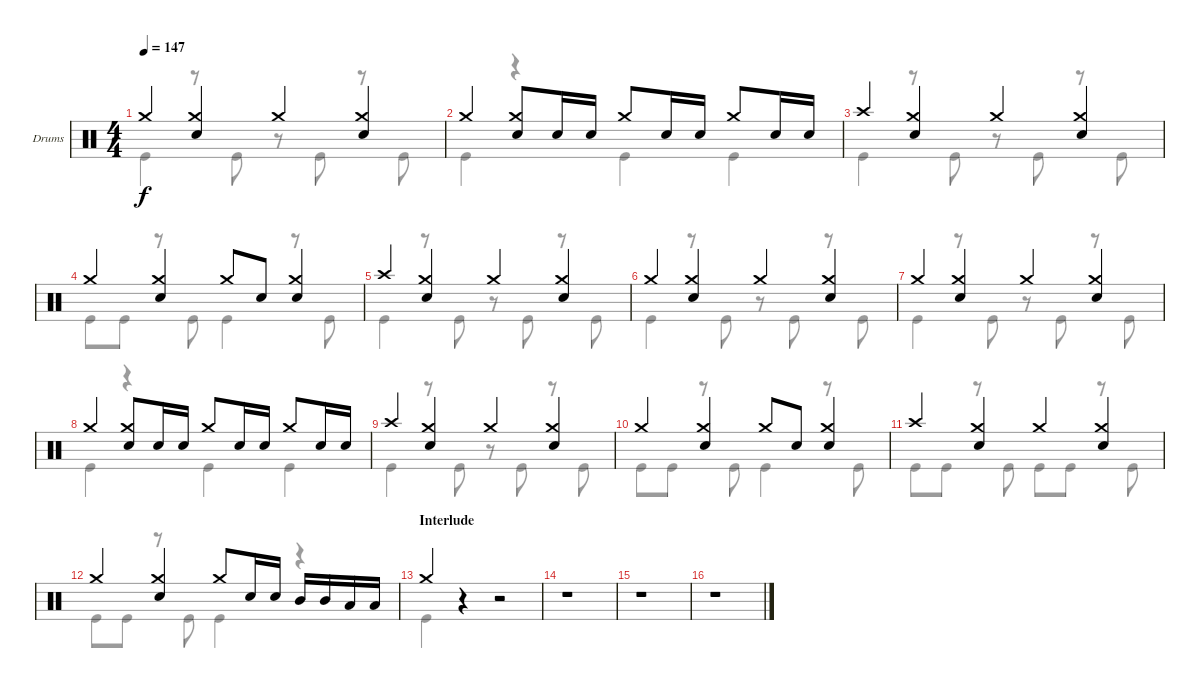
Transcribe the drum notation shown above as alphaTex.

\defaultSystemsLayout 4
\bracketExtendMode groupsimilarinstruments
\firstSystemTrackNameOrientation horizontal
\otherSystemsTrackNameOrientation horizontal
\track ("Drums" "Drums") {instrument percussion}
\staff {score}
\articulation defaults
\voice
\ts (4 4)
\tempo 147
\clef neutral
\ks c "Crash medium (hit)".4{dy f}
("Crash medium (hit)" "Snare (hit) 2").4 "Crash medium (hit)".4 ("Crash medium (hit)" "Snare (hit) 2").4 |
"Crash medium (hit)".4 ("Crash medium (hit)" "Snare (hit) 2").8 "Snare (hit) 2".16 "Snare (hit) 2".16 "Crash medium (hit)".8 "Snare (hit) 2".16 "Snare (hit) 2".16 "Crash medium (hit)".8 "Snare (hit) 2".16 "Snare (hit) 2".16 |
"Crash high (hit)".4 ("Crash medium (hit)" "Snare (hit) 2").4 "Crash medium (hit)".4 ("Crash medium (hit)" "Snare (hit) 2").4 |
"Crash medium (hit)".4 ("Crash medium (hit)" "Snare (hit) 2").4 "Crash medium (hit)".8 "Snare (hit) 2".8 ("Crash medium (hit)" "Snare (hit) 2").4 |
"Crash high (hit)".4 ("Crash medium (hit)" "Snare (hit) 2").4 "Crash medium (hit)".4 ("Crash medium (hit)" "Snare (hit) 2").4 |
"Crash medium (hit)".4 ("Crash medium (hit)" "Snare (hit) 2").4 "Crash medium (hit)".4 ("Crash medium (hit)" "Snare (hit) 2").4 |
"Crash medium (hit)".4 ("Crash medium (hit)" "Snare (hit) 2").4 "Crash medium (hit)".4 ("Crash medium (hit)" "Snare (hit) 2").4 |
"Crash medium (hit)".4 ("Crash medium (hit)" "Snare (hit) 2").8 "Snare (hit) 2".16 "Snare (hit) 2".16 "Crash medium (hit)".8 "Snare (hit) 2".16 "Snare (hit) 2".16 "Crash medium (hit)".8 "Snare (hit) 2".16 "Snare (hit) 2".16 |
"Crash high (hit)".4 ("Crash medium (hit)" "Snare (hit) 2").4 "Crash medium (hit)".4 ("Crash medium (hit)" "Snare (hit) 2").4 |
"Crash medium (hit)".4 ("Crash medium (hit)" "Snare (hit) 2").4 "Crash medium (hit)".8 "Snare (hit) 2".8 ("Crash medium (hit)" "Snare (hit) 2").4 |
"Crash high (hit)".4 ("Crash medium (hit)" "Snare (hit) 2").4 "Crash medium (hit)".4 ("Crash medium (hit)" "Snare (hit) 2").4 |
"Crash medium (hit)".4 ("Crash medium (hit)" "Snare (hit) 2").4 "Crash medium (hit)".8 "Snare (hit) 2".16 "Snare (hit) 2".16 "Mid Tom (hit)".16 "Mid Tom (hit)".16 "Low Tom (hit)".16 "Low Tom (hit)".16 |
\section ("" "Interlude")
"Crash medium (hit)".4 r.4 r.2 |
r.1 |
r.1 |
r.1
\voice
\clef neutral
\ottava regular
\simile none
\ks c "Kick (hit)".4{dy f}
r.8 "Kick (hit)".8 r.8 "Kick (hit)".8 r.8 "Kick (hit)".8 |
"Kick (hit)".4 r.4 "Kick (hit)".4 "Kick (hit)".4 |
"Kick (hit)".4 r.8 "Kick (hit)".8 r.8 "Kick (hit)".8 r.8 "Kick (hit)".8 |
"Kick (hit)".8 "Kick (hit)".8 r.8 "Kick (hit)".8 "Kick (hit)".4 r.8 "Kick (hit)".8 |
"Kick (hit)".4 r.8 "Kick (hit)".8 r.8 "Kick (hit)".8 r.8 "Kick (hit)".8 |
"Kick (hit)".4 r.8 "Kick (hit)".8 r.8 "Kick (hit)".8 r.8 "Kick (hit)".8 |
"Kick (hit)".4 r.8 "Kick (hit)".8 r.8 "Kick (hit)".8 r.8 "Kick (hit)".8 |
"Kick (hit)".4 r.4 "Kick (hit)".4 "Kick (hit)".4 |
"Kick (hit)".4 r.8 "Kick (hit)".8 r.8 "Kick (hit)".8 r.8 "Kick (hit)".8 |
"Kick (hit)".8 "Kick (hit)".8 r.8 "Kick (hit)".8 "Kick (hit)".4 r.8 "Kick (hit)".8 |
"Kick (hit)".8 "Kick (hit)".8 r.8 "Kick (hit)".8 "Kick (hit)".8 "Kick (hit)".8 r.8 "Kick (hit)".8 |
"Kick (hit)".8 "Kick (hit)".8 r.8 "Kick (hit)".8 "Kick (hit)".4 r.4 |
"Kick (hit)".4 r.4 r.2 |
r.1 |
r.1 |
r.1
